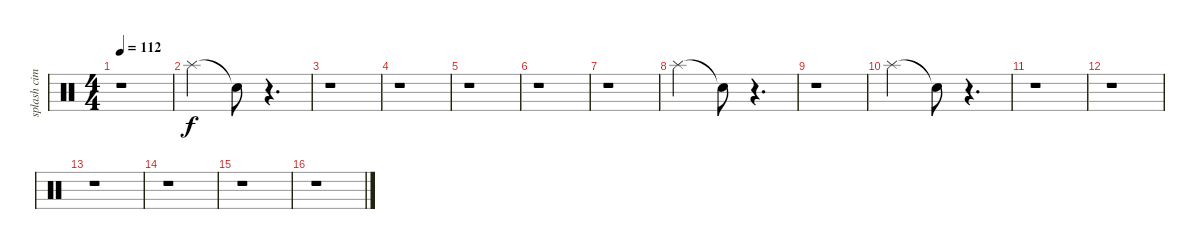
\track ("splash cimbal" "splash cim") {instrument percussion}
\staff {score}
\articulation defaults
\ts (4 4)
\tempo 112
\clef neutral
\ks c
r.1{dy f} |
"Splash (hit)".2 "Snare (hit)"{t}.8 r.4{d} |
r.1 |
r.1 |
r.1 |
r.1 |
r.1 |
"Splash (hit)".2 "Snare (hit)"{t}.8 r.4{d} |
r.1 |
"Splash (hit)".2 "Snare (hit)"{t}.8 r.4{d} |
r.1 |
r.1 |
r.1 |
r.1 |
r.1 |
r.1
